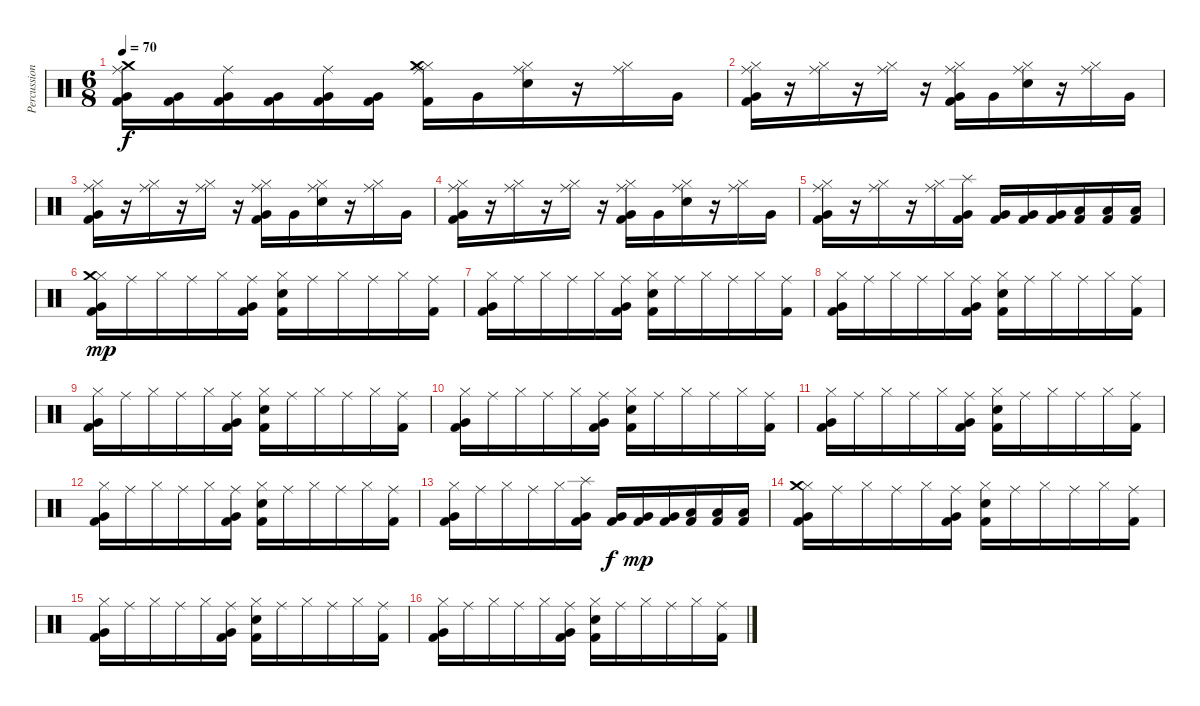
\track ("Percussion" "Percussion") {instrument percussion}
\staff {score}
\articulation defaults
\ts (6 8)
\tempo 70
\clef neutral
\ks c
("Kick (hit) 2" "Very Low Tom (hit)" "Crash medium (hit)" "Ride (middle)").16{dy f} ("Kick (hit) 2" "Very Low Tom (hit)").16 ("Kick (hit) 2" "Very Low Tom (hit)" "Ride (middle)").16 ("Kick (hit) 2" "Very Low Tom (hit)").16 ("Kick (hit) 2" "Very Low Tom (hit)" "Ride (middle)").16 ("Kick (hit) 2" "Very Low Tom (hit)").16 ("Ride (middle)" "Hi-Hat (closed)" "Kick (hit) 2" "Crash medium (hit)").16 "Very Low Tom (hit)".16 ("Ride (middle)" "Electric Snare (hit)" "Hi-Hat (closed)").16 r.16 ("Ride (middle)" "Hi-Hat (closed)").16 "Very Low Tom (hit)".16 |
("Ride (middle)" "Very Low Tom (hit)" "Hi-Hat (closed)" "Kick (hit) 2").16 r.16 ("Ride (middle)" "Hi-Hat (closed)").16 r.16 ("Ride (middle)" "Hi-Hat (closed)").16 r.16 ("Ride (middle)" "Very Low Tom (hit)" "Hi-Hat (closed)" "Kick (hit) 2").16 "Very Low Tom (hit)".16 ("Ride (middle)" "Electric Snare (hit)" "Hi-Hat (closed)").16 r.16 ("Ride (middle)" "Hi-Hat (closed)").16 "Very Low Tom (hit)".16 |
("Ride (middle)" "Very Low Tom (hit)" "Hi-Hat (closed)" "Kick (hit) 2").16 r.16 ("Ride (middle)" "Hi-Hat (closed)").16 r.16 ("Ride (middle)" "Hi-Hat (closed)").16 r.16 ("Ride (middle)" "Very Low Tom (hit)" "Hi-Hat (closed)" "Kick (hit) 2").16 "Very Low Tom (hit)".16 ("Ride (middle)" "Electric Snare (hit)" "Hi-Hat (closed)").16 r.16 ("Ride (middle)" "Hi-Hat (closed)").16 "Very Low Tom (hit)".16 |
("Ride (middle)" "Very Low Tom (hit)" "Hi-Hat (closed)" "Kick (hit) 2").16 r.16 ("Ride (middle)" "Hi-Hat (closed)").16 r.16 ("Ride (middle)" "Hi-Hat (closed)").16 r.16 ("Ride (middle)" "Very Low Tom (hit)" "Hi-Hat (closed)" "Kick (hit) 2").16 "Very Low Tom (hit)".16 ("Ride (middle)" "Electric Snare (hit)" "Hi-Hat (closed)").16 r.16 ("Ride (middle)" "Hi-Hat (closed)").16 "Very Low Tom (hit)".16 |
("Ride (middle)" "Very Low Tom (hit)" "Hi-Hat (closed)" "Kick (hit) 2").16 r.16 ("Ride (middle)" "Hi-Hat (closed)").16 r.16 ("Ride (middle)" "Hi-Hat (closed)").16 ("Splash (hit)" "Kick (hit) 2" "Very Low Tom (hit)").16 ("Kick (hit) 2" "Very Low Tom (hit)").16 ("Kick (hit) 2" "Very Low Tom (hit)").16 ("Kick (hit) 2" "Very Low Tom (hit)").16 ("Kick (hit) 2" "Low Floor Tom (hit)").16 ("Kick (hit) 2" "Low Floor Tom (hit)").16 ("Kick (hit) 2" "Low Floor Tom (hit)").16 |
("Very Low Tom (hit)" "Hi-Hat (closed)" "Crash medium (hit)" "Kick (hit) 2").16{dy mp} "Ride (middle)".16 "Hi-Hat (closed)".16 "Ride (middle)".16 "Hi-Hat (closed)".16 ("Ride (middle)" "Kick (hit) 2" "Very Low Tom (hit)").16 ("Hi-Hat (closed)" "Electric Snare (hit)" "Kick (hit) 2").16 "Ride (middle)".16 "Hi-Hat (closed)".16 "Ride (middle)".16 "Hi-Hat (closed)".16 ("Ride (middle)" "Kick (hit) 2").16 |
("Very Low Tom (hit)" "Hi-Hat (closed)" "Kick (hit) 2").16 "Ride (middle)".16 "Hi-Hat (closed)".16 "Ride (middle)".16 "Hi-Hat (closed)".16 ("Ride (middle)" "Kick (hit) 2" "Very Low Tom (hit)").16 ("Hi-Hat (closed)" "Electric Snare (hit)" "Kick (hit) 2").16 "Ride (middle)".16 "Hi-Hat (closed)".16 "Ride (middle)".16 "Hi-Hat (closed)".16 ("Ride (middle)" "Kick (hit) 2").16 |
("Very Low Tom (hit)" "Hi-Hat (closed)" "Kick (hit) 2").16 "Ride (middle)".16 "Hi-Hat (closed)".16 "Ride (middle)".16 "Hi-Hat (closed)".16 ("Ride (middle)" "Kick (hit) 2" "Very Low Tom (hit)").16 ("Hi-Hat (closed)" "Electric Snare (hit)" "Kick (hit) 2").16 "Ride (middle)".16 "Hi-Hat (closed)".16 "Ride (middle)".16 "Hi-Hat (closed)".16 ("Ride (middle)" "Kick (hit) 2").16 |
("Very Low Tom (hit)" "Hi-Hat (closed)" "Kick (hit) 2").16 "Ride (middle)".16 "Hi-Hat (closed)".16 "Ride (middle)".16 "Hi-Hat (closed)".16 ("Ride (middle)" "Kick (hit) 2" "Very Low Tom (hit)").16 ("Hi-Hat (closed)" "Electric Snare (hit)" "Kick (hit) 2").16 "Ride (middle)".16 "Hi-Hat (closed)".16 "Ride (middle)".16 "Hi-Hat (closed)".16 ("Ride (middle)" "Kick (hit) 2").16 |
("Very Low Tom (hit)" "Hi-Hat (closed)" "Kick (hit) 2").16 "Ride (middle)".16 "Hi-Hat (closed)".16 "Ride (middle)".16 "Hi-Hat (closed)".16 ("Ride (middle)" "Kick (hit) 2" "Very Low Tom (hit)").16 ("Hi-Hat (closed)" "Electric Snare (hit)" "Kick (hit) 2").16 "Ride (middle)".16 "Hi-Hat (closed)".16 "Ride (middle)".16 "Hi-Hat (closed)".16 ("Ride (middle)" "Kick (hit) 2").16 |
("Very Low Tom (hit)" "Hi-Hat (closed)" "Kick (hit) 2").16 "Ride (middle)".16 "Hi-Hat (closed)".16 "Ride (middle)".16 "Hi-Hat (closed)".16 ("Ride (middle)" "Kick (hit) 2" "Very Low Tom (hit)").16 ("Hi-Hat (closed)" "Electric Snare (hit)" "Kick (hit) 2").16 "Ride (middle)".16 "Hi-Hat (closed)".16 "Ride (middle)".16 "Hi-Hat (closed)".16 ("Ride (middle)" "Kick (hit) 2").16 |
("Very Low Tom (hit)" "Hi-Hat (closed)" "Kick (hit) 2").16 "Ride (middle)".16 "Hi-Hat (closed)".16 "Ride (middle)".16 "Hi-Hat (closed)".16 ("Ride (middle)" "Kick (hit) 2" "Very Low Tom (hit)").16 ("Hi-Hat (closed)" "Electric Snare (hit)" "Kick (hit) 2").16 "Ride (middle)".16 "Hi-Hat (closed)".16 "Ride (middle)".16 "Hi-Hat (closed)".16 ("Ride (middle)" "Kick (hit) 2").16 |
("Very Low Tom (hit)" "Hi-Hat (closed)" "Kick (hit) 2").16 "Ride (middle)".16 "Hi-Hat (closed)".16 "Ride (middle)".16 "Hi-Hat (closed)".16 ("Kick (hit) 2" "Very Low Tom (hit)" "Splash (hit)").16 ("Very Low Tom (hit)" "Kick (hit) 2").16{dy f} ("Very Low Tom (hit)" "Kick (hit) 2").16{dy mp} ("Very Low Tom (hit)" "Kick (hit) 2").16 ("Low Floor Tom (hit)" "Kick (hit) 2").16 ("Low Floor Tom (hit)" "Kick (hit) 2").16 ("Low Floor Tom (hit)" "Kick (hit) 2").16 |
("Very Low Tom (hit)" "Hi-Hat (closed)" "Crash medium (hit)" "Kick (hit) 2").16 "Ride (middle)".16 "Hi-Hat (closed)".16 "Ride (middle)".16 "Hi-Hat (closed)".16 ("Ride (middle)" "Kick (hit) 2" "Very Low Tom (hit)").16 ("Hi-Hat (closed)" "Electric Snare (hit)" "Kick (hit) 2").16 "Ride (middle)".16 "Hi-Hat (closed)".16 "Ride (middle)".16 "Hi-Hat (closed)".16 ("Ride (middle)" "Kick (hit) 2").16 |
("Very Low Tom (hit)" "Hi-Hat (closed)" "Kick (hit) 2").16 "Ride (middle)".16 "Hi-Hat (closed)".16 "Ride (middle)".16 "Hi-Hat (closed)".16 ("Ride (middle)" "Kick (hit) 2" "Very Low Tom (hit)").16 ("Hi-Hat (closed)" "Electric Snare (hit)" "Kick (hit) 2").16 "Ride (middle)".16 "Hi-Hat (closed)".16 "Ride (middle)".16 "Hi-Hat (closed)".16 ("Ride (middle)" "Kick (hit) 2").16 |
("Very Low Tom (hit)" "Hi-Hat (closed)" "Kick (hit) 2").16 "Ride (middle)".16 "Hi-Hat (closed)".16 "Ride (middle)".16 "Hi-Hat (closed)".16 ("Ride (middle)" "Kick (hit) 2" "Very Low Tom (hit)").16 ("Hi-Hat (closed)" "Electric Snare (hit)" "Kick (hit) 2").16 "Ride (middle)".16 "Hi-Hat (closed)".16 "Ride (middle)".16 "Hi-Hat (closed)".16 ("Ride (middle)" "Kick (hit) 2").16
